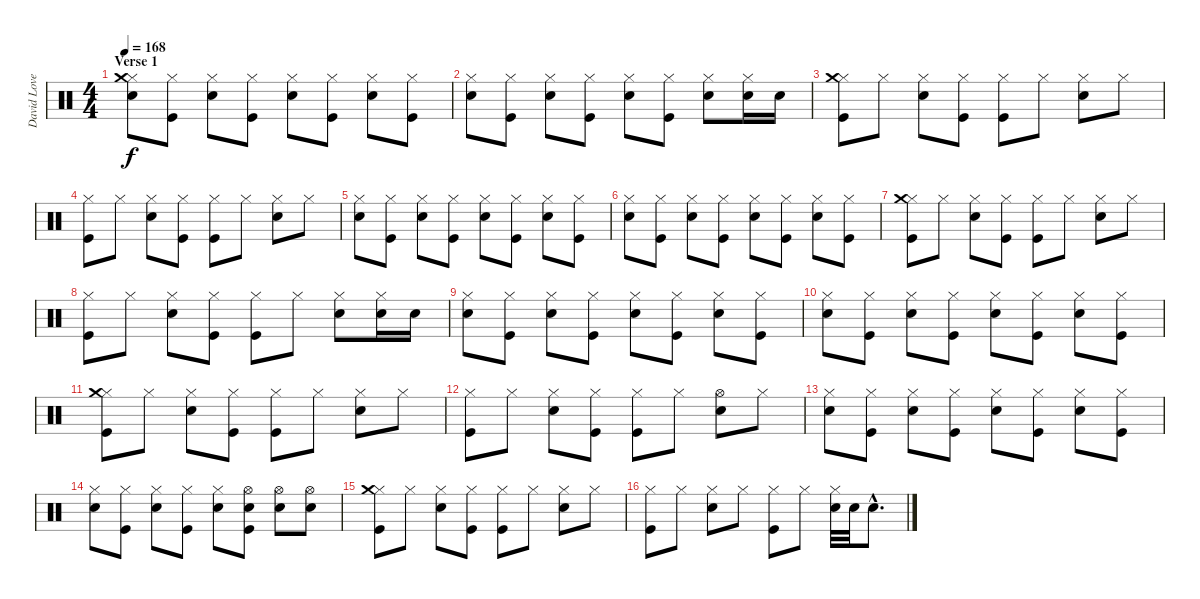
\track ("David Lovering" "David Love") {instrument percussion}
\staff {score}
\articulation defaults
\ts (4 4)
\section ("" "Verse 1")
\tempo 168
\clef neutral
\ks c
("Hi-Hat (closed)" "Crash medium (hit)" "Snare (hit) 2").8{dy f} ("Hi-Hat (closed)" "Kick (hit)").8 ("Hi-Hat (closed)" "Snare (hit) 2").8 ("Hi-Hat (closed)" "Kick (hit)").8 ("Hi-Hat (closed)" "Snare (hit) 2").8 ("Hi-Hat (closed)" "Kick (hit)").8 ("Hi-Hat (closed)" "Snare (hit) 2").8 ("Hi-Hat (closed)" "Kick (hit)").8 |
("Hi-Hat (closed)" "Snare (hit) 2").8 ("Hi-Hat (closed)" "Kick (hit)").8 ("Hi-Hat (closed)" "Snare (hit) 2").8 ("Hi-Hat (closed)" "Kick (hit)").8 ("Hi-Hat (closed)" "Snare (hit) 2").8 ("Hi-Hat (closed)" "Kick (hit)").8 ("Hi-Hat (closed)" "Snare (hit) 2").8 ("Hi-Hat (closed)" "Snare (hit) 2").16 "Snare (hit) 2".16 |
("Hi-Hat (closed)" "Crash medium (hit)" "Kick (hit)").8 "Hi-Hat (closed)".8 ("Hi-Hat (closed)" "Snare (hit) 2").8 ("Hi-Hat (closed)" "Kick (hit)").8 ("Hi-Hat (closed)" "Kick (hit)").8 "Hi-Hat (closed)".8 ("Hi-Hat (closed)" "Snare (hit) 2").8 "Hi-Hat (closed)".8 |
("Hi-Hat (closed)" "Kick (hit)").8 "Hi-Hat (closed)".8 ("Hi-Hat (closed)" "Snare (hit) 2").8 ("Hi-Hat (closed)" "Kick (hit)").8 ("Hi-Hat (closed)" "Kick (hit)").8 "Hi-Hat (closed)".8 ("Hi-Hat (closed)" "Snare (hit) 2").8 "Hi-Hat (closed)".8 |
("Hi-Hat (closed)" "Snare (hit) 2").8 ("Hi-Hat (closed)" "Kick (hit)").8 ("Hi-Hat (closed)" "Snare (hit) 2").8 ("Hi-Hat (closed)" "Kick (hit)").8 ("Hi-Hat (closed)" "Snare (hit) 2").8 ("Hi-Hat (closed)" "Kick (hit)").8 ("Hi-Hat (closed)" "Snare (hit) 2").8 ("Hi-Hat (closed)" "Kick (hit)").8 |
("Hi-Hat (closed)" "Snare (hit) 2").8 ("Hi-Hat (closed)" "Kick (hit)").8 ("Hi-Hat (closed)" "Snare (hit) 2").8 ("Hi-Hat (closed)" "Kick (hit)").8 ("Hi-Hat (closed)" "Snare (hit) 2").8 ("Hi-Hat (closed)" "Kick (hit)").8 ("Hi-Hat (closed)" "Snare (hit) 2").8 ("Hi-Hat (closed)" "Kick (hit)").8 |
("Hi-Hat (closed)" "Crash medium (hit)" "Kick (hit)").8 "Hi-Hat (closed)".8 ("Hi-Hat (closed)" "Snare (hit) 2").8 ("Hi-Hat (closed)" "Kick (hit)").8 ("Hi-Hat (closed)" "Kick (hit)").8 "Hi-Hat (closed)".8 ("Hi-Hat (closed)" "Snare (hit) 2").8 "Hi-Hat (closed)".8 |
("Hi-Hat (closed)" "Kick (hit)").8 "Hi-Hat (closed)".8 ("Hi-Hat (closed)" "Snare (hit) 2").8 ("Hi-Hat (closed)" "Kick (hit)").8 ("Hi-Hat (closed)" "Kick (hit)").8 "Hi-Hat (closed)".8 ("Hi-Hat (closed)" "Snare (hit) 2").8 ("Hi-Hat (closed)" "Snare (hit) 2").16 "Snare (hit) 2".16 |
("Hi-Hat (closed)" "Snare (hit) 2").8 ("Hi-Hat (closed)" "Kick (hit)").8 ("Hi-Hat (closed)" "Snare (hit) 2").8 ("Hi-Hat (closed)" "Kick (hit)").8 ("Hi-Hat (closed)" "Snare (hit) 2").8 ("Hi-Hat (closed)" "Kick (hit)").8 ("Hi-Hat (closed)" "Snare (hit) 2").8 ("Hi-Hat (closed)" "Kick (hit)").8 |
("Hi-Hat (closed)" "Snare (hit) 2").8 ("Hi-Hat (closed)" "Kick (hit)").8 ("Hi-Hat (closed)" "Snare (hit) 2").8 ("Hi-Hat (closed)" "Kick (hit)").8 ("Hi-Hat (closed)" "Snare (hit) 2").8 ("Hi-Hat (closed)" "Kick (hit)").8 ("Hi-Hat (closed)" "Snare (hit) 2").8 ("Hi-Hat (closed)" "Kick (hit)").8 |
("Hi-Hat (closed)" "Crash medium (hit)" "Kick (hit)").8 "Hi-Hat (closed)".8 ("Hi-Hat (closed)" "Snare (hit) 2").8 ("Hi-Hat (closed)" "Kick (hit)").8 ("Hi-Hat (closed)" "Kick (hit)").8 "Hi-Hat (closed)".8 ("Hi-Hat (closed)" "Snare (hit) 2").8 "Hi-Hat (closed)".8 |
("Hi-Hat (closed)" "Kick (hit)").8 "Hi-Hat (closed)".8 ("Hi-Hat (closed)" "Snare (hit) 2").8 ("Hi-Hat (closed)" "Kick (hit)").8 ("Hi-Hat (closed)" "Kick (hit)").8 "Hi-Hat (closed)".8 ("Hi-Hat (open)" "Snare (hit) 2").8 "Hi-Hat (closed)".8 |
("Hi-Hat (closed)" "Snare (hit) 2").8 ("Hi-Hat (closed)" "Kick (hit)").8 ("Hi-Hat (closed)" "Snare (hit) 2").8 ("Hi-Hat (closed)" "Kick (hit)").8 ("Hi-Hat (closed)" "Snare (hit) 2").8 ("Hi-Hat (closed)" "Kick (hit)").8 ("Hi-Hat (closed)" "Snare (hit) 2").8 ("Hi-Hat (closed)" "Kick (hit)").8 |
("Hi-Hat (closed)" "Snare (hit) 2").8 ("Hi-Hat (closed)" "Kick (hit)").8 ("Hi-Hat (closed)" "Snare (hit) 2").8 ("Hi-Hat (closed)" "Kick (hit)").8 ("Hi-Hat (closed)" "Snare (hit) 2").8 ("Hi-Hat (open)" "Snare (hit) 2" "Kick (hit)").8 ("Hi-Hat (open)" "Snare (hit) 2").8 ("Hi-Hat (open)" "Snare (hit) 2").8 |
("Hi-Hat (closed)" "Crash medium (hit)" "Kick (hit)").8 "Hi-Hat (closed)".8 ("Hi-Hat (closed)" "Snare (hit) 2").8 ("Hi-Hat (closed)" "Kick (hit)").8 ("Hi-Hat (closed)" "Kick (hit)").8 "Hi-Hat (closed)".8 ("Hi-Hat (closed)" "Snare (hit) 2").8 "Hi-Hat (closed)".8 |
("Hi-Hat (closed)" "Kick (hit)").8 "Hi-Hat (closed)".8 ("Hi-Hat (closed)" "Snare (hit) 2").8 "Hi-Hat (closed)".8 ("Hi-Hat (closed)" "Kick (hit)").8 "Hi-Hat (closed)".8 ("Hi-Hat (closed)" "Snare (hit) 2").32 "Snare (hit) 2".32 "Snare (hit) 2"{hac}.8{d}
